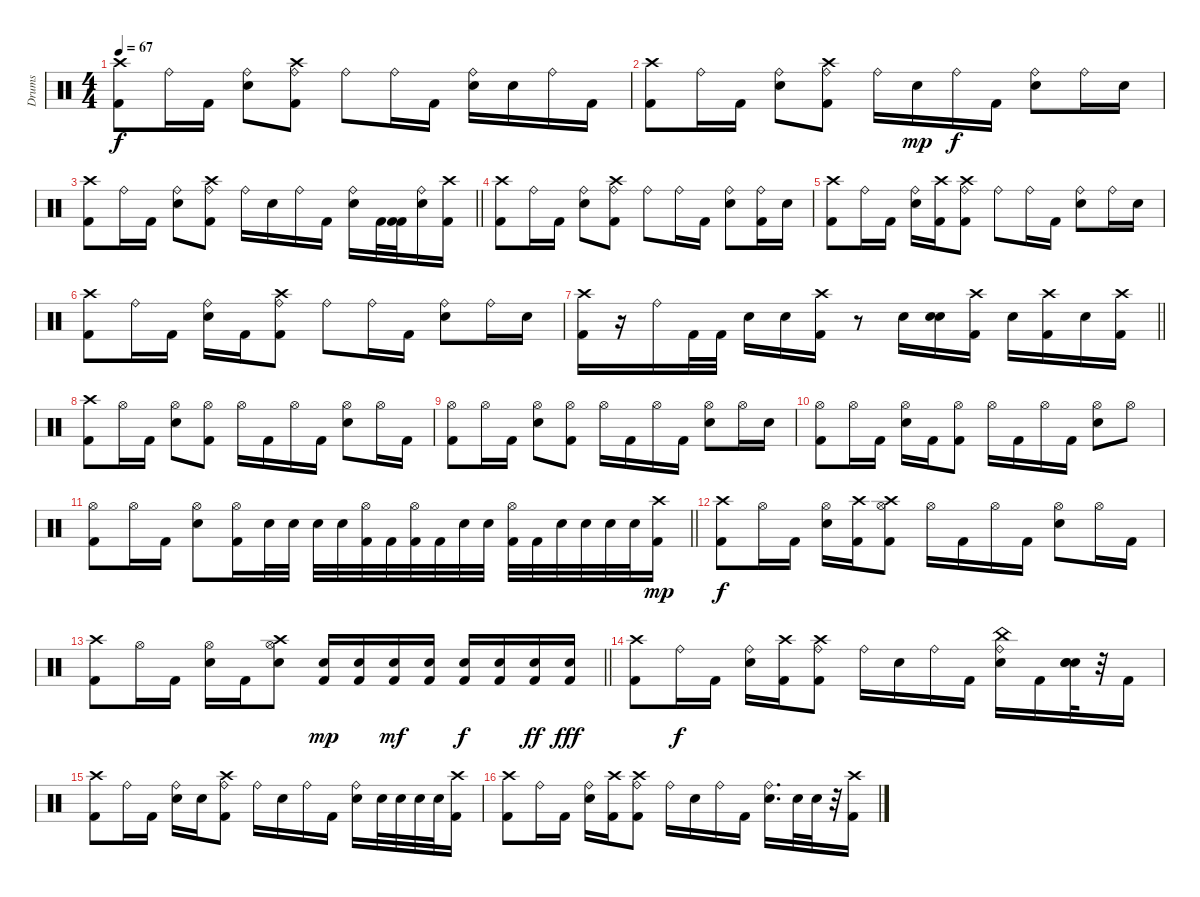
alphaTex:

\track ("Drums" "Drums") {instrument percussion}
\staff {score}
\articulation defaults
\ts (4 4)
\tempo 67
\clef neutral
\ks c
("Crash high (hit)" "Kick (hit) 2").8{dy f} "Ride (bell)".16 "Kick (hit) 2".16 ("Electric Snare (hit)" "Ride (bell)").8 ("Kick (hit) 2" "Ride (bell)" "Crash high (hit)").8 "Ride (bell)".8 "Ride (bell)".16 "Kick (hit) 2".16 ("Electric Snare (hit)" "Ride (bell)").16 "Electric Snare (hit)".16 "Ride (bell)".16 "Kick (hit) 2".16 |
("Crash high (hit)" "Kick (hit) 2").8 "Ride (bell)".16 "Kick (hit) 2".16 ("Electric Snare (hit)" "Ride (bell)").8 ("Kick (hit) 2" "Ride (bell)" "Crash high (hit)").8 "Ride (bell)".16 "Electric Snare (hit)".16{dy mp} "Ride (bell)".16{dy f} "Kick (hit) 2".16 ("Electric Snare (hit)" "Ride (bell)").8 "Ride (bell)".16 "Electric Snare (hit)".16 |
\barLineRight lightlight
("Kick (hit) 2" "Crash high (hit)").8 "Ride (bell)".16 "Kick (hit) 2".16 ("Electric Snare (hit)" "Ride (bell)").8 ("Kick (hit) 2" "Ride (bell)" "Crash high (hit)").8 "Ride (bell)".16 "Electric Snare (hit)".16 "Ride (bell)".16 "Kick (hit) 2".16 ("Ride (bell)" "Electric Snare (hit)").16 "Kick (hit) 2".32 ("Kick (hit) 2" "Kick (hit) 2").32 ("Ride (bell)" "Electric Snare (hit)").16 ("Kick (hit) 2" "Crash high (hit)").16 |
("Crash high (hit)" "Kick (hit) 2").8 "Ride (bell)".16 "Kick (hit) 2".16 ("Electric Snare (hit)" "Ride (bell)").8 ("Kick (hit) 2" "Ride (bell)" "Crash high (hit)").8 "Ride (bell)".8 "Ride (bell)".16 "Kick (hit) 2".16 ("Electric Snare (hit)" "Ride (bell)").8 ("Ride (bell)" "Kick (hit) 2").16 "Electric Snare (hit)".16 |
("Kick (hit) 2" "Crash high (hit)").8 "Ride (bell)".16 "Kick (hit) 2".16 ("Ride (bell)" "Electric Snare (hit)").16 ("Crash high (hit)" "Kick (hit) 2").16 ("Kick (hit) 2" "Ride (bell)" "Crash high (hit)").8 "Ride (bell)".8 "Ride (bell)".16 "Kick (hit) 2".16 ("Electric Snare (hit)" "Ride (bell)").8 "Ride (bell)".16 "Electric Snare (hit)".16 |
("Crash high (hit)" "Kick (hit) 2").8 "Ride (bell)".16 "Kick (hit) 2".16 ("Ride (bell)" "Electric Snare (hit)").16 "Kick (hit) 2".16 ("Kick (hit) 2" "Ride (bell)" "Crash high (hit)").8 "Ride (bell)".8 "Ride (bell)".16 "Kick (hit) 2".16 ("Electric Snare (hit)" "Ride (bell)").8 "Ride (bell)".16 "Electric Snare (hit)".16 |
\barLineRight lightlight
("Crash high (hit)" "Kick (hit) 2").16 r.16 "Ride (bell)".16 "Kick (hit) 2".32 "Kick (hit) 2".32 "Electric Snare (hit)".16 "Electric Snare (hit)".16 ("Crash high (hit)" "Kick (hit) 2").16 r.8 "Electric Snare (hit)".16 ("Electric Snare (hit)" "Electric Snare (hit)").16 ("Crash high (hit)" "Kick (hit) 2").16 "Electric Snare (hit)".16 ("Crash high (hit)" "Kick (hit) 2").16 "Electric Snare (hit)".16 ("Kick (hit) 2" "Crash high (hit)").16 |
("Crash high (hit)" "Kick (hit) 2").8 "Hi-Hat (open)".16 "Kick (hit) 2".16 ("Hi-Hat (open)" "Electric Snare (hit)").8 ("Hi-Hat (open)" "Kick (hit) 2").8 "Hi-Hat (open)".16 "Kick (hit) 2".16 "Hi-Hat (open)".16 "Kick (hit) 2".16 ("Hi-Hat (open)" "Electric Snare (hit)").8 "Hi-Hat (open)".16 "Kick (hit) 2".16 |
("Kick (hit) 2" "Hi-Hat (open)").8 "Hi-Hat (open)".16 "Kick (hit) 2".16 ("Hi-Hat (open)" "Electric Snare (hit)").8 ("Hi-Hat (open)" "Kick (hit) 2").8 "Hi-Hat (open)".16 "Kick (hit) 2".16 "Hi-Hat (open)".16 "Kick (hit) 2".16 ("Hi-Hat (open)" "Electric Snare (hit)").8 "Hi-Hat (open)".16 "Electric Snare (hit)".16 |
("Hi-Hat (open)" "Kick (hit) 2").8 "Hi-Hat (open)".16 "Kick (hit) 2".16 ("Hi-Hat (open)" "Electric Snare (hit)").16 "Kick (hit) 2".16 ("Hi-Hat (open)" "Kick (hit) 2").8 "Hi-Hat (open)".16 "Kick (hit) 2".16 "Hi-Hat (open)".16 "Kick (hit) 2".16 ("Hi-Hat (open)" "Electric Snare (hit)").8 "Hi-Hat (open)".8 |
\barLineRight lightlight
("Hi-Hat (open)" "Kick (hit) 2").8 "Hi-Hat (open)".16 "Kick (hit) 2".16 ("Electric Snare (hit)" "Hi-Hat (open)").8 ("Kick (hit) 2" "Hi-Hat (open)").16 "Electric Snare (hit)".32 "Electric Snare (hit)".32 "Electric Snare (hit)".32 "Electric Snare (hit)".32 ("Kick (hit) 2" "Hi-Hat (open)").32 "Kick (hit) 2".32 ("Kick (hit) 2" "Hi-Hat (open)").32 "Kick (hit) 2".32 "Electric Snare (hit)".32 "Electric Snare (hit)".32 ("Kick (hit) 2" "Hi-Hat (open)").32 "Kick (hit) 2".32 "Electric Snare (hit)".32 "Electric Snare (hit)".32 "Electric Snare (hit)".32 "Electric Snare (hit)".32 ("Crash high (hit)" "Kick (hit) 2").16{dy mp} |
("Kick (hit) 2" "Crash high (hit)").8{dy f} "Hi-Hat (open)".16 "Kick (hit) 2".16 ("Hi-Hat (open)" "Electric Snare (hit)").16 ("Kick (hit) 2" "Crash high (hit)").16 ("Hi-Hat (open)" "Kick (hit) 2" "Crash high (hit)").8 "Hi-Hat (open)".16 "Kick (hit) 2".16 "Hi-Hat (open)".16 "Kick (hit) 2".16 ("Hi-Hat (open)" "Electric Snare (hit)").8 "Hi-Hat (open)".16 "Kick (hit) 2".16 |
\barLineRight lightlight
("Kick (hit) 2" "Crash high (hit)").8 "Hi-Hat (open)".16 "Kick (hit) 2".16 ("Hi-Hat (open)" "Electric Snare (hit)").16 "Kick (hit) 2".16 ("Hi-Hat (open)" "Crash high (hit)" "Electric Snare (hit)").8 ("Kick (hit) 2" "Electric Snare (hit)").16{dy mp} ("Electric Snare (hit)" "Kick (hit) 2").16 ("Electric Snare (hit)" "Kick (hit) 2").16{dy mf} ("Electric Snare (hit)" "Kick (hit) 2").16 ("Electric Snare (hit)" "Kick (hit) 2").16{dy f} ("Electric Snare (hit)" "Kick (hit) 2").16 ("Electric Snare (hit)" "Kick (hit) 2").16{dy ff} ("Electric Snare (hit)" "Kick (hit) 2").16{dy fff} |
("Crash high (hit)" "Kick (hit) 2").8 "Ride (bell)".16{dy f} "Kick (hit) 2".16 ("Ride (bell)" "Electric Snare (hit)").16 ("Kick (hit) 2" "Crash high (hit)").16 ("Ride (bell)" "Crash high (hit)" "Kick (hit) 2").8 "Ride (bell)".16 "Electric Snare (hit)".16 "Ride (bell)".16 "Kick (hit) 2".16 ("Electric Snare (hit)" "Ride (bell)" "China (hit)").16 "Kick (hit) 2".16 ("Electric Snare (hit)" "Electric Snare (hit)" "Electric Snare (hit)").32 r.32 "Kick (hit) 2".16 |
("Kick (hit) 2" "Crash high (hit)").8 "Ride (bell)".16 "Kick (hit) 2".16 ("Ride (bell)" "Electric Snare (hit)").16 "Electric Snare (hit)".16 ("Ride (bell)" "Crash high (hit)" "Kick (hit) 2").8 "Ride (bell)".16 "Electric Snare (hit)".16 "Ride (bell)".16 "Kick (hit) 2".16 ("Ride (bell)" "Electric Snare (hit)").16 "Electric Snare (hit)".32 "Electric Snare (hit)".32 "Electric Snare (hit)".32 "Electric Snare (hit)".32 ("Crash high (hit)" "Kick (hit) 2").16 |
("Kick (hit) 2" "Crash high (hit)").8 "Ride (bell)".16 "Kick (hit) 2".16 ("Ride (bell)" "Electric Snare (hit)").16 ("Crash high (hit)" "Kick (hit) 2").16 ("Ride (bell)" "Crash high (hit)" "Kick (hit) 2").8 "Ride (bell)".16 "Electric Snare (hit)".16 "Ride (bell)".16 "Kick (hit) 2".16 ("Electric Snare (hit)" "Ride (bell)").16{d} "Electric Snare (hit)".32 "Electric Snare (hit)".32 r.32 ("Kick (hit) 2" "Crash high (hit)").16
